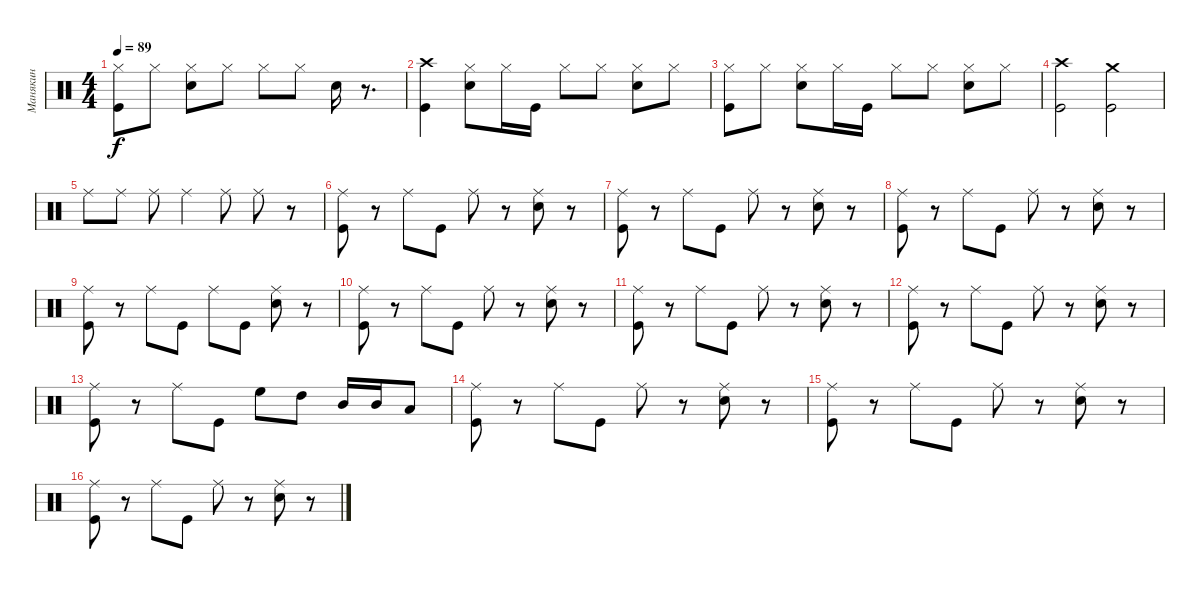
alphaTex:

\track ("Манякин" "Манякин") {instrument percussion}
\staff {score}
\articulation defaults
\ts (4 4)
\tempo 89
\clef neutral
\ks c
("Hi-Hat (closed)" "Kick (hit)").8{dy f} "Hi-Hat (closed)".8 ("Hi-Hat (closed)" "Electric Snare (hit)").8 "Hi-Hat (closed)".8 "Hi-Hat (closed)".8 "Hi-Hat (closed)".8 "Electric Snare (hit)".16 r.8{d} |
("Kick (hit)" "Crash high (hit)").4 ("Electric Snare (hit)" "Hi-Hat (closed)").8 "Hi-Hat (closed)".16 "Kick (hit)".16 "Hi-Hat (closed)".8 "Hi-Hat (closed)".8 ("Electric Snare (hit)" "Hi-Hat (closed)").8 "Hi-Hat (closed)".8 |
("Kick (hit)" "Hi-Hat (closed)").8 "Hi-Hat (closed)".8 ("Hi-Hat (closed)" "Electric Snare (hit)").8 "Hi-Hat (closed)".16 "Kick (hit)".16 "Hi-Hat (closed)".8 "Hi-Hat (closed)".8 ("Electric Snare (hit)" "Hi-Hat (closed)").8 "Hi-Hat (closed)".8 |
("Crash high (hit)" "Kick (hit)").2 ("Kick (hit)" "Crash medium (hit)").2 |
"Ride (middle)".8 "Ride (middle)".8 "Ride (middle)".8 "Ride (middle)".4 "Ride (middle)".8 "Ride (middle)".8 r.8 |
("Ride (middle)" "Kick (hit)").8 r.8 "Ride (middle)".8 "Kick (hit)".8 "Ride (middle)".8 r.8 ("Ride (middle)" "Electric Snare (hit)").8 r.8 |
("Kick (hit)" "Ride (middle)").8 r.8 "Ride (middle)".8 "Kick (hit)".8 "Ride (middle)".8 r.8 ("Ride (middle)" "Electric Snare (hit)").8 r.8 |
("Ride (middle)" "Kick (hit)").8 r.8 "Ride (middle)".8 "Kick (hit)".8 "Ride (middle)".8 r.8 ("Ride (middle)" "Electric Snare (hit)").8 r.8 |
("Kick (hit)" "Ride (middle)").8 r.8 "Ride (middle)".8 "Kick (hit)".8 "Ride (middle)".8 "Kick (hit)".8 ("Electric Snare (hit)" "Ride (middle)").8 r.8 |
("Kick (hit)" "Ride (middle)").8 r.8 "Ride (middle)".8 "Kick (hit)".8 "Ride (middle)".8 r.8 ("Electric Snare (hit)" "Ride (middle)").8 r.8 |
("Ride (middle)" "Kick (hit)").8 r.8 "Ride (middle)".8 "Kick (hit)".8 "Ride (middle)".8 r.8 ("Electric Snare (hit)" "Ride (middle)").8 r.8 |
("Kick (hit)" "Ride (middle)").8 r.8 "Ride (middle)".8 "Kick (hit)".8 "Ride (middle)".8 r.8 ("Ride (middle)" "Electric Snare (hit)").8 r.8 |
("Ride (middle)" "Kick (hit)").8 r.8 "Ride (middle)".8 "Kick (hit)".8 "High Floor Tom (hit)".8 "High Tom (hit)".8 "Mid Tom (hit)".16 "Mid Tom (hit)".16 "Low Tom (hit)".8 |
("Ride (middle)" "Kick (hit)").8 r.8 "Ride (middle)".8 "Kick (hit)".8 "Ride (middle)".8 r.8 ("Electric Snare (hit)" "Ride (middle)").8 r.8 |
("Kick (hit)" "Ride (middle)").8 r.8 "Ride (middle)".8 "Kick (hit)".8 "Ride (middle)".8 r.8 ("Ride (middle)" "Electric Snare (hit)").8 r.8 |
("Kick (hit)" "Ride (middle)").8 r.8 "Ride (middle)".8 "Kick (hit)".8 "Ride (middle)".8 r.8 ("Ride (middle)" "Electric Snare (hit)").8 r.8
